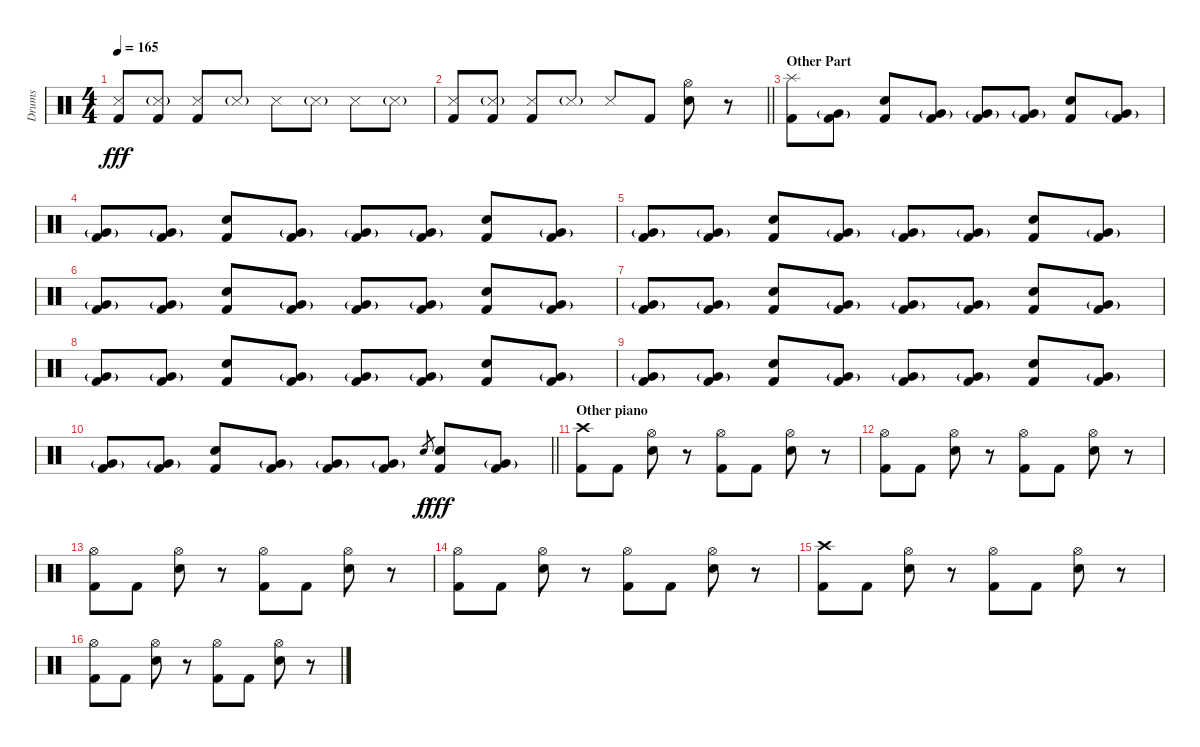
\track ("Drums" "Drums") {instrument percussion}
\staff {score}
\articulation defaults
\ts (4 4)
\tempo 165
\clef neutral
\ks c
("Snare (side stick) 3" "Kick (hit) 2").8{dy fff} ("Snare (side stick) 3"{g} "Kick (hit) 2").8 ("Snare (side stick) 3" "Kick (hit) 2").8 "Snare (side stick) 3"{g}.8 "Snare (side stick) 3".8 "Snare (side stick) 3"{g}.8 "Snare (side stick) 3".8 "Snare (side stick) 3"{g}.8 |
\barLineRight lightlight
("Snare (side stick) 3" "Kick (hit) 2").8 ("Snare (side stick) 3"{g} "Kick (hit) 2").8 ("Snare (side stick) 3" "Kick (hit) 2").8 "Snare (side stick) 3"{g}.8 "Snare (side stick) 3".8 "Kick (hit) 2".8 ("Hi-Hat (open)" "Electric Snare (hit)").8 r.8 |
\section ("" "Other Part")
("Splash (hit)" "Kick (hit) 2").8 ("Very Low Tom (hit)"{g} "Kick (hit) 2").8 ("Electric Snare (hit)" "Kick (hit) 2").8 ("Very Low Tom (hit)"{g} "Kick (hit) 2").8 ("Very Low Tom (hit)"{g} "Kick (hit) 2").8 ("Very Low Tom (hit)"{g} "Kick (hit) 2").8 ("Electric Snare (hit)" "Kick (hit) 2").8 ("Very Low Tom (hit)"{g} "Kick (hit) 2").8 |
("Very Low Tom (hit)"{g} "Kick (hit) 2").8 ("Very Low Tom (hit)"{g} "Kick (hit) 2").8 ("Electric Snare (hit)" "Kick (hit) 2").8 ("Very Low Tom (hit)"{g} "Kick (hit) 2").8 ("Very Low Tom (hit)"{g} "Kick (hit) 2").8 ("Very Low Tom (hit)"{g} "Kick (hit) 2").8 ("Electric Snare (hit)" "Kick (hit) 2").8 ("Very Low Tom (hit)"{g} "Kick (hit) 2").8 |
("Very Low Tom (hit)"{g} "Kick (hit) 2").8 ("Very Low Tom (hit)"{g} "Kick (hit) 2").8 ("Electric Snare (hit)" "Kick (hit) 2").8 ("Very Low Tom (hit)"{g} "Kick (hit) 2").8 ("Very Low Tom (hit)"{g} "Kick (hit) 2").8 ("Very Low Tom (hit)"{g} "Kick (hit) 2").8 ("Electric Snare (hit)" "Kick (hit) 2").8 ("Very Low Tom (hit)"{g} "Kick (hit) 2").8 |
("Very Low Tom (hit)"{g} "Kick (hit) 2").8 ("Very Low Tom (hit)"{g} "Kick (hit) 2").8 ("Electric Snare (hit)" "Kick (hit) 2").8 ("Very Low Tom (hit)"{g} "Kick (hit) 2").8 ("Very Low Tom (hit)"{g} "Kick (hit) 2").8 ("Very Low Tom (hit)"{g} "Kick (hit) 2").8 ("Electric Snare (hit)" "Kick (hit) 2").8 ("Very Low Tom (hit)"{g} "Kick (hit) 2").8 |
("Very Low Tom (hit)"{g} "Kick (hit) 2").8 ("Very Low Tom (hit)"{g} "Kick (hit) 2").8 ("Electric Snare (hit)" "Kick (hit) 2").8 ("Very Low Tom (hit)"{g} "Kick (hit) 2").8 ("Very Low Tom (hit)"{g} "Kick (hit) 2").8 ("Very Low Tom (hit)"{g} "Kick (hit) 2").8 ("Electric Snare (hit)" "Kick (hit) 2").8 ("Very Low Tom (hit)"{g} "Kick (hit) 2").8 |
("Very Low Tom (hit)"{g} "Kick (hit) 2").8 ("Very Low Tom (hit)"{g} "Kick (hit) 2").8 ("Electric Snare (hit)" "Kick (hit) 2").8 ("Very Low Tom (hit)"{g} "Kick (hit) 2").8 ("Very Low Tom (hit)"{g} "Kick (hit) 2").8 ("Very Low Tom (hit)"{g} "Kick (hit) 2").8 ("Electric Snare (hit)" "Kick (hit) 2").8 ("Very Low Tom (hit)"{g} "Kick (hit) 2").8 |
("Very Low Tom (hit)"{g} "Kick (hit) 2").8 ("Very Low Tom (hit)"{g} "Kick (hit) 2").8 ("Electric Snare (hit)" "Kick (hit) 2").8 ("Very Low Tom (hit)"{g} "Kick (hit) 2").8 ("Very Low Tom (hit)"{g} "Kick (hit) 2").8 ("Very Low Tom (hit)"{g} "Kick (hit) 2").8 ("Electric Snare (hit)" "Kick (hit) 2").8 ("Very Low Tom (hit)"{g} "Kick (hit) 2").8 |
\barLineRight lightlight
("Very Low Tom (hit)"{g} "Kick (hit) 2").8 ("Very Low Tom (hit)"{g} "Kick (hit) 2").8 ("Electric Snare (hit)" "Kick (hit) 2").8 ("Very Low Tom (hit)"{g} "Kick (hit) 2").8 ("Very Low Tom (hit)"{g} "Kick (hit) 2").8 ("Very Low Tom (hit)"{g} "Kick (hit) 2").8 "Electric Snare (hit)".8{gr dy f} ("Electric Snare (hit)" "Kick (hit) 2").8{dy fff} ("Very Low Tom (hit)"{g} "Kick (hit) 2").8 |
\section ("" "Other piano")
("Crash high (hit)" "Kick (hit) 2").8 "Kick (hit) 2".8 ("Hi-Hat (open)" "Electric Snare (hit)").8 r.8 ("Hi-Hat (open)" "Kick (hit) 2").8 "Kick (hit) 2".8 ("Hi-Hat (open)" "Electric Snare (hit)").8 r.8 |
("Hi-Hat (open)" "Kick (hit) 2").8 "Kick (hit) 2".8 ("Hi-Hat (open)" "Electric Snare (hit)").8 r.8 ("Hi-Hat (open)" "Kick (hit) 2").8 "Kick (hit) 2".8 ("Hi-Hat (open)" "Electric Snare (hit)").8 r.8 |
("Hi-Hat (open)" "Kick (hit) 2").8 "Kick (hit) 2".8 ("Hi-Hat (open)" "Electric Snare (hit)").8 r.8 ("Hi-Hat (open)" "Kick (hit) 2").8 "Kick (hit) 2".8 ("Hi-Hat (open)" "Electric Snare (hit)").8 r.8 |
("Hi-Hat (open)" "Kick (hit) 2").8 "Kick (hit) 2".8 ("Hi-Hat (open)" "Electric Snare (hit)").8 r.8 ("Hi-Hat (open)" "Kick (hit) 2").8 "Kick (hit) 2".8 ("Hi-Hat (open)" "Electric Snare (hit)").8 r.8 |
("Crash high (hit)" "Kick (hit) 2").8 "Kick (hit) 2".8 ("Hi-Hat (open)" "Electric Snare (hit)").8 r.8 ("Hi-Hat (open)" "Kick (hit) 2").8 "Kick (hit) 2".8 ("Hi-Hat (open)" "Electric Snare (hit)").8 r.8 |
("Hi-Hat (open)" "Kick (hit) 2").8 "Kick (hit) 2".8 ("Hi-Hat (open)" "Electric Snare (hit)").8 r.8 ("Hi-Hat (open)" "Kick (hit) 2").8 "Kick (hit) 2".8 ("Hi-Hat (open)" "Electric Snare (hit)").8 r.8
